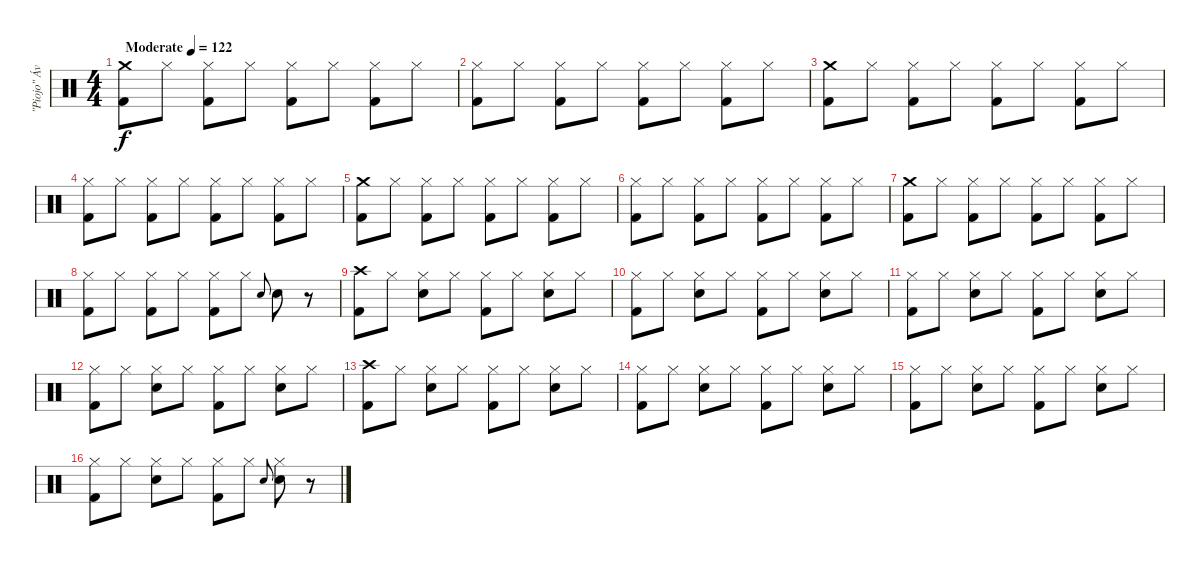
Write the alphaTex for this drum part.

\track ("\"Piojo\" Ávalos" "\"Piojo\" Áv") {instrument percussion}
\staff {score}
\articulation defaults
\ts (4 4)
\tempo (122 "Moderate")
\clef neutral
\ks c
("Kick (hit) 2" "Crash medium (hit)").8{dy f} "Hi-Hat (closed)".8 ("Kick (hit) 2" "Hi-Hat (closed)").8 "Hi-Hat (closed)".8 ("Kick (hit) 2" "Hi-Hat (closed)").8 "Hi-Hat (closed)".8 ("Kick (hit) 2" "Hi-Hat (closed)").8 "Hi-Hat (closed)".8 |
("Kick (hit) 2" "Hi-Hat (closed)").8 "Hi-Hat (closed)".8 ("Kick (hit) 2" "Hi-Hat (closed)").8 "Hi-Hat (closed)".8 ("Kick (hit) 2" "Hi-Hat (closed)").8 "Hi-Hat (closed)".8 ("Kick (hit) 2" "Hi-Hat (closed)").8 "Hi-Hat (closed)".8 |
("Kick (hit) 2" "Crash medium (hit)").8 "Hi-Hat (closed)".8 ("Kick (hit) 2" "Hi-Hat (closed)").8 "Hi-Hat (closed)".8 ("Kick (hit) 2" "Hi-Hat (closed)").8 "Hi-Hat (closed)".8 ("Kick (hit) 2" "Hi-Hat (closed)").8 "Hi-Hat (closed)".8 |
("Kick (hit) 2" "Hi-Hat (closed)").8 "Hi-Hat (closed)".8 ("Kick (hit) 2" "Hi-Hat (closed)").8 "Hi-Hat (closed)".8 ("Kick (hit) 2" "Hi-Hat (closed)").8 "Hi-Hat (closed)".8 ("Kick (hit) 2" "Hi-Hat (closed)").8 "Hi-Hat (closed)".8 |
("Kick (hit) 2" "Crash medium (hit)").8 "Hi-Hat (closed)".8 ("Kick (hit) 2" "Hi-Hat (closed)").8 "Hi-Hat (closed)".8 ("Kick (hit) 2" "Hi-Hat (closed)").8 "Hi-Hat (closed)".8 ("Kick (hit) 2" "Hi-Hat (closed)").8 "Hi-Hat (closed)".8 |
("Kick (hit) 2" "Hi-Hat (closed)").8 "Hi-Hat (closed)".8 ("Kick (hit) 2" "Hi-Hat (closed)").8 "Hi-Hat (closed)".8 ("Kick (hit) 2" "Hi-Hat (closed)").8 "Hi-Hat (closed)".8 ("Kick (hit) 2" "Hi-Hat (closed)").8 "Hi-Hat (closed)".8 |
("Kick (hit) 2" "Crash medium (hit)").8 "Hi-Hat (closed)".8 ("Kick (hit) 2" "Hi-Hat (closed)").8 "Hi-Hat (closed)".8 ("Kick (hit) 2" "Hi-Hat (closed)").8 "Hi-Hat (closed)".8 ("Kick (hit) 2" "Hi-Hat (closed)").8 "Hi-Hat (closed)".8 |
("Kick (hit) 2" "Hi-Hat (closed)").8 "Hi-Hat (closed)".8 ("Kick (hit) 2" "Hi-Hat (closed)").8 "Hi-Hat (closed)".8 ("Kick (hit) 2" "Hi-Hat (closed)").8 "Hi-Hat (closed)".8 "Snare (hit) 2".8{gr onbeat} "Snare (hit) 2".8 r.8 |
("Kick (hit) 2" "Crash high (hit)").8 "Hi-Hat (closed)".8 ("Snare (hit) 2" "Hi-Hat (closed)").8 "Hi-Hat (closed)".8 ("Kick (hit) 2" "Hi-Hat (closed)").8 "Hi-Hat (closed)".8 ("Snare (hit) 2" "Hi-Hat (closed)").8 "Hi-Hat (closed)".8 |
("Kick (hit) 2" "Hi-Hat (closed)").8 "Hi-Hat (closed)".8 ("Snare (hit) 2" "Hi-Hat (closed)").8 "Hi-Hat (closed)".8 ("Kick (hit) 2" "Hi-Hat (closed)").8 "Hi-Hat (closed)".8 ("Snare (hit) 2" "Hi-Hat (closed)").8 "Hi-Hat (closed)".8 |
("Kick (hit) 2" "Hi-Hat (closed)").8 "Hi-Hat (closed)".8 ("Snare (hit) 2" "Hi-Hat (closed)").8 "Hi-Hat (closed)".8 ("Kick (hit) 2" "Hi-Hat (closed)").8 "Hi-Hat (closed)".8 ("Snare (hit) 2" "Hi-Hat (closed)").8 "Hi-Hat (closed)".8 |
("Kick (hit) 2" "Hi-Hat (closed)").8 "Hi-Hat (closed)".8 ("Snare (hit) 2" "Hi-Hat (closed)").8 "Hi-Hat (closed)".8 ("Kick (hit) 2" "Hi-Hat (closed)").8 "Hi-Hat (closed)".8 ("Snare (hit) 2" "Hi-Hat (closed)").8 "Hi-Hat (closed)".8 |
("Kick (hit) 2" "Crash high (hit)").8 "Hi-Hat (closed)".8 ("Snare (hit) 2" "Hi-Hat (closed)").8 "Hi-Hat (closed)".8 ("Kick (hit) 2" "Hi-Hat (closed)").8 "Hi-Hat (closed)".8 ("Snare (hit) 2" "Hi-Hat (closed)").8 "Hi-Hat (closed)".8 |
("Kick (hit) 2" "Hi-Hat (closed)").8 "Hi-Hat (closed)".8 ("Snare (hit) 2" "Hi-Hat (closed)").8 "Hi-Hat (closed)".8 ("Kick (hit) 2" "Hi-Hat (closed)").8 "Hi-Hat (closed)".8 ("Snare (hit) 2" "Hi-Hat (closed)").8 "Hi-Hat (closed)".8 |
("Kick (hit) 2" "Hi-Hat (closed)").8 "Hi-Hat (closed)".8 ("Snare (hit) 2" "Hi-Hat (closed)").8 "Hi-Hat (closed)".8 ("Kick (hit) 2" "Hi-Hat (closed)").8 "Hi-Hat (closed)".8 ("Snare (hit) 2" "Hi-Hat (closed)").8 "Hi-Hat (closed)".8 |
("Kick (hit) 2" "Hi-Hat (closed)").8 "Hi-Hat (closed)".8 ("Snare (hit) 2" "Hi-Hat (closed)").8 "Hi-Hat (closed)".8 ("Kick (hit) 2" "Hi-Hat (closed)").8 "Hi-Hat (closed)".8 "Snare (hit) 2".8{gr onbeat} ("Snare (hit) 2" "Hi-Hat (closed)").8 r.8
